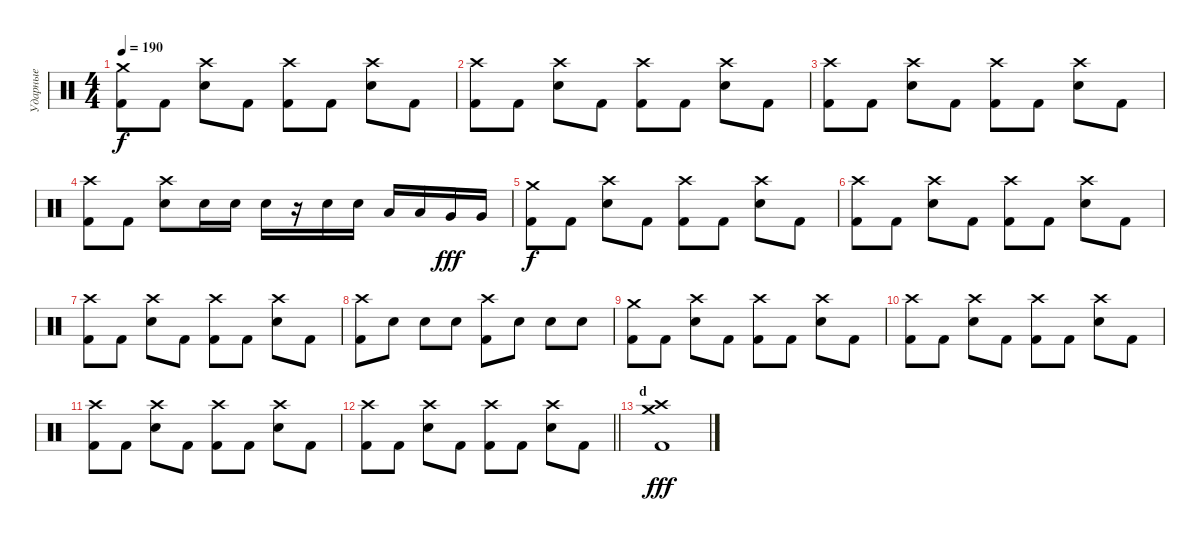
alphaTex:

\track ("Ударные" "Ударные") {instrument percussion}
\staff {score}
\articulation defaults
\ts (4 4)
\tempo 190
\clef neutral
\ks c
("Crash medium (hit)" "Kick (hit) 2").8{dy f} "Kick (hit) 2".8 ("Crash high (hit)" "Snare (hit) 2").8 "Kick (hit) 2".8 ("Crash high (hit)" "Kick (hit) 2").8 "Kick (hit) 2".8 ("Crash high (hit)" "Snare (hit) 2").8 "Kick (hit) 2".8 |
("Crash high (hit)" "Kick (hit) 2").8 "Kick (hit) 2".8 ("Crash high (hit)" "Snare (hit) 2").8 "Kick (hit) 2".8 ("Crash high (hit)" "Kick (hit) 2").8 "Kick (hit) 2".8 ("Crash high (hit)" "Snare (hit) 2").8 "Kick (hit) 2".8 |
("Crash high (hit)" "Kick (hit) 2").8 "Kick (hit) 2".8 ("Crash high (hit)" "Snare (hit) 2").8 "Kick (hit) 2".8 ("Crash high (hit)" "Kick (hit) 2").8 "Kick (hit) 2".8 ("Crash high (hit)" "Snare (hit) 2").8 "Kick (hit) 2".8 |
("Crash high (hit)" "Kick (hit) 2").8 "Kick (hit) 2".8 ("Crash high (hit)" "Snare (hit) 2").8 "Snare (hit) 2".16 "Snare (hit) 2".16 "Snare (hit) 2".16 r.16 "Snare (hit) 2".16 "Snare (hit) 2".16 "Low Tom (hit)".16 "Low Tom (hit)".16 "Very Low Tom (hit)".16{dy fff} "Very Low Tom (hit)".16 |
("Crash medium (hit)" "Kick (hit) 2").8{dy f} "Kick (hit) 2".8 ("Crash high (hit)" "Snare (hit) 2").8 "Kick (hit) 2".8 ("Crash high (hit)" "Kick (hit) 2").8 "Kick (hit) 2".8 ("Crash high (hit)" "Snare (hit) 2").8 "Kick (hit) 2".8 |
("Crash high (hit)" "Kick (hit) 2").8 "Kick (hit) 2".8 ("Crash high (hit)" "Snare (hit) 2").8 "Kick (hit) 2".8 ("Crash high (hit)" "Kick (hit) 2").8 "Kick (hit) 2".8 ("Crash high (hit)" "Snare (hit) 2").8 "Kick (hit) 2".8 |
("Crash high (hit)" "Kick (hit) 2").8 "Kick (hit) 2".8 ("Crash high (hit)" "Snare (hit) 2").8 "Kick (hit) 2".8 ("Crash high (hit)" "Kick (hit) 2").8 "Kick (hit) 2".8 ("Crash high (hit)" "Snare (hit) 2").8 "Kick (hit) 2".8 |
("Crash high (hit)" "Kick (hit) 2").8 "Snare (hit) 2".8 "Snare (hit) 2".8 "Snare (hit) 2".8 ("Crash high (hit)" "Kick (hit) 2").8 "Snare (hit) 2".8 "Snare (hit) 2".8 "Snare (hit) 2".8 |
("Crash medium (hit)" "Kick (hit) 2").8 "Kick (hit) 2".8 ("Crash high (hit)" "Snare (hit) 2").8 "Kick (hit) 2".8 ("Crash high (hit)" "Kick (hit) 2").8 "Kick (hit) 2".8 ("Crash high (hit)" "Snare (hit) 2").8 "Kick (hit) 2".8 |
("Crash high (hit)" "Kick (hit) 2").8 "Kick (hit) 2".8 ("Crash high (hit)" "Snare (hit) 2").8 "Kick (hit) 2".8 ("Crash high (hit)" "Kick (hit) 2").8 "Kick (hit) 2".8 ("Crash high (hit)" "Snare (hit) 2").8 "Kick (hit) 2".8 |
("Crash high (hit)" "Kick (hit) 2").8 "Kick (hit) 2".8 ("Crash high (hit)" "Snare (hit) 2").8 "Kick (hit) 2".8 ("Crash high (hit)" "Kick (hit) 2").8 "Kick (hit) 2".8 ("Crash high (hit)" "Snare (hit) 2").8 "Kick (hit) 2".8 |
\barLineRight lightlight
("Crash high (hit)" "Kick (hit) 2").8 "Kick (hit) 2".8 ("Crash high (hit)" "Snare (hit) 2").8 "Kick (hit) 2".8 ("Crash high (hit)" "Kick (hit) 2").8 "Kick (hit) 2".8 ("Crash high (hit)" "Snare (hit) 2").8 "Kick (hit) 2".8 |
\section ("" "d")
("Crash high (hit)" "Crash medium (hit)" "Kick (hit) 2").1{dy fff}
